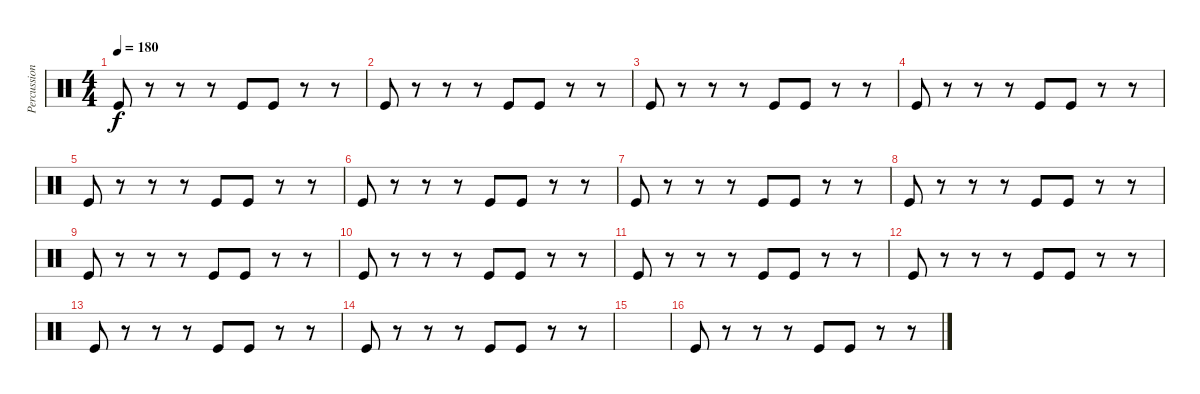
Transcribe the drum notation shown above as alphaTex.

\track ("Percussion" "Percussion") {instrument percussion}
\staff {score}
\articulation defaults
\ts (4 4)
\tempo 180
\clef neutral
\ks c "Kick (hit)".8{dy f}
r.8 r.8 r.8 "Kick (hit)".8 "Kick (hit)".8 r.8 r.8 |
"Kick (hit)".8 r.8 r.8 r.8 "Kick (hit)".8 "Kick (hit)".8 r.8 r.8 |
"Kick (hit)".8 r.8 r.8 r.8 "Kick (hit)".8 "Kick (hit)".8 r.8 r.8 |
"Kick (hit)".8 r.8 r.8 r.8 "Kick (hit)".8 "Kick (hit)".8 r.8 r.8 |
"Kick (hit)".8 r.8 r.8 r.8 "Kick (hit)".8 "Kick (hit)".8 r.8 r.8 |
"Kick (hit)".8 r.8 r.8 r.8 "Kick (hit)".8 "Kick (hit)".8 r.8 r.8 |
"Kick (hit)".8 r.8 r.8 r.8 "Kick (hit)".8 "Kick (hit)".8 r.8 r.8 |
"Kick (hit)".8 r.8 r.8 r.8 "Kick (hit)".8 "Kick (hit)".8 r.8 r.8 |
"Kick (hit)".8 r.8 r.8 r.8 "Kick (hit)".8 "Kick (hit)".8 r.8 r.8 |
"Kick (hit)".8 r.8 r.8 r.8 "Kick (hit)".8 "Kick (hit)".8 r.8 r.8 |
"Kick (hit)".8 r.8 r.8 r.8 "Kick (hit)".8 "Kick (hit)".8 r.8 r.8 |
"Kick (hit)".8 r.8 r.8 r.8 "Kick (hit)".8 "Kick (hit)".8 r.8 r.8 |
"Kick (hit)".8 r.8 r.8 r.8 "Kick (hit)".8 "Kick (hit)".8 r.8 r.8 |
"Kick (hit)".8 r.8 r.8 r.8 "Kick (hit)".8 "Kick (hit)".8 r.8 r.8 |
|
"Kick (hit)".8 r.8 r.8 r.8 "Kick (hit)".8 "Kick (hit)".8 r.8 r.8
